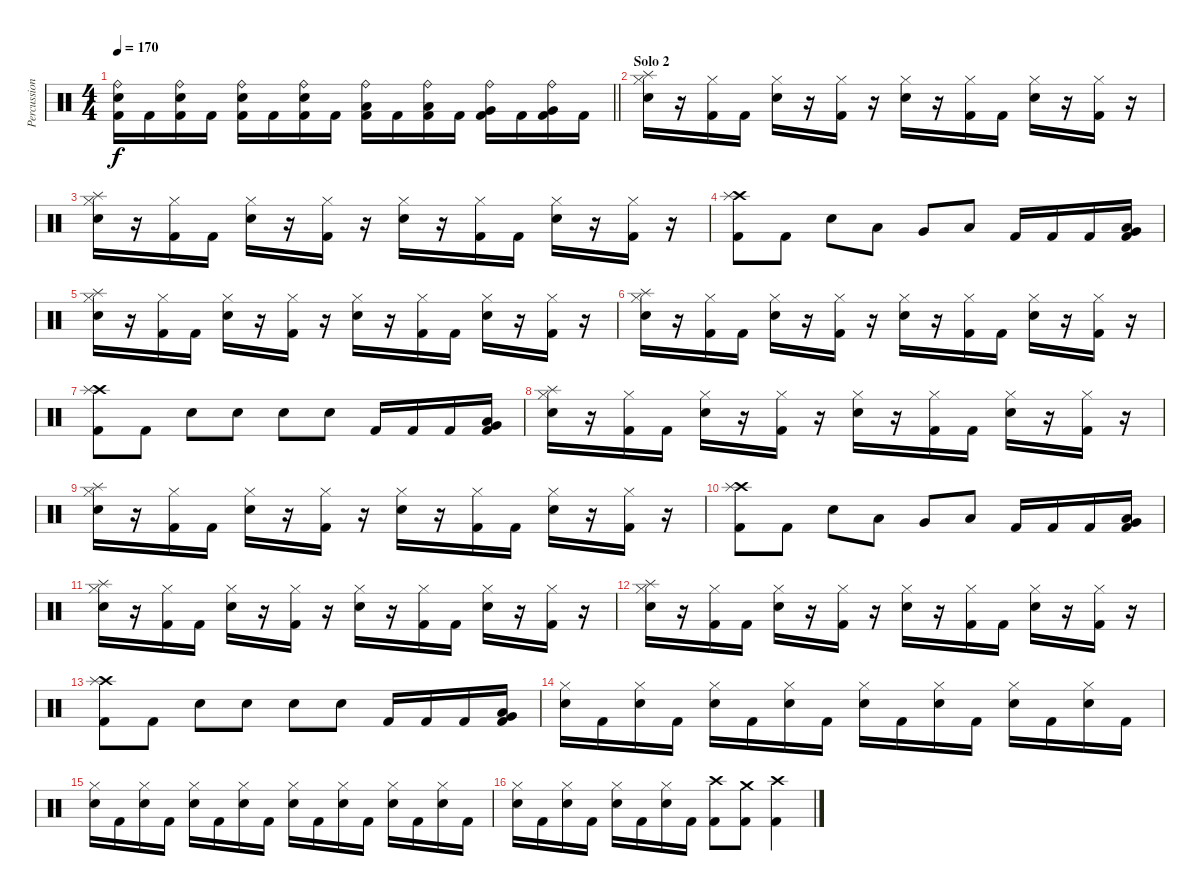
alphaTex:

\track ("Percussion" "Percussion") {instrument percussion}
\staff {score}
\articulation defaults
\ts (4 4)
\tempo 170
\clef neutral
\barLineRight lightlight
\ks c
("Ride (bell)" "Snare (hit) 2" "Kick (hit) 2").16{dy f} "Kick (hit) 2".16 ("Ride (bell)" "Snare (hit) 2" "Kick (hit) 2").16 "Kick (hit) 2".16 ("Ride (bell)" "Snare (hit) 2" "Kick (hit) 2").16 "Kick (hit) 2".16 ("Ride (bell)" "Snare (hit) 2" "Kick (hit) 2").16 "Kick (hit) 2".16 ("Ride (bell)" "Low Tom (hit)" "Kick (hit) 2").16 "Kick (hit) 2".16 ("Ride (bell)" "Low Tom (hit)" "Kick (hit) 2").16 "Kick (hit) 2".16 ("Ride (bell)" "Very Low Tom (hit)" "Kick (hit) 2").16 "Kick (hit) 2".16 ("Ride (bell)" "Very Low Tom (hit)" "Kick (hit) 2").16 "Kick (hit) 2".16 |
\section ("" "Solo 2")
("Splash (hit)" "Hi-Hat (closed)" "Snare (hit) 2").16 r.16 ("Hi-Hat (closed)" "Kick (hit) 2").16 "Kick (hit) 2".16 ("Hi-Hat (closed)" "Snare (hit) 2").16 r.16 ("Hi-Hat (closed)" "Kick (hit) 2").16 r.16 ("Hi-Hat (closed)" "Snare (hit) 2").16 r.16 ("Hi-Hat (closed)" "Kick (hit) 2").16 "Kick (hit) 2".16 ("Hi-Hat (closed)" "Snare (hit) 2").16 r.16 ("Hi-Hat (closed)" "Kick (hit) 2").16 r.16 |
("Splash (hit)" "Hi-Hat (closed)" "Snare (hit) 2").16 r.16 ("Hi-Hat (closed)" "Kick (hit) 2").16 "Kick (hit) 2".16 ("Hi-Hat (closed)" "Snare (hit) 2").16 r.16 ("Hi-Hat (closed)" "Kick (hit) 2").16 r.16 ("Hi-Hat (closed)" "Snare (hit) 2").16 r.16 ("Hi-Hat (closed)" "Kick (hit) 2").16 "Kick (hit) 2".16 ("Hi-Hat (closed)" "Snare (hit) 2").16 r.16 ("Hi-Hat (closed)" "Kick (hit) 2").16 r.16 |
("Crash high (hit)" "Splash (hit)" "Kick (hit) 2").8 "Kick (hit) 2".8 "Snare (hit) 2".8 "Low Tom (hit)".8 "Very Low Tom (hit)".8 "Low Floor Tom (hit)".8 "Kick (hit) 2".16 "Kick (hit) 2".16 "Kick (hit) 2".16 ("Low Floor Tom (hit)" "Very Low Tom (hit)" "Kick (hit) 2").16 |
("Splash (hit)" "Hi-Hat (closed)" "Snare (hit) 2").16 r.16 ("Hi-Hat (closed)" "Kick (hit) 2").16 "Kick (hit) 2".16 ("Hi-Hat (closed)" "Snare (hit) 2").16 r.16 ("Hi-Hat (closed)" "Kick (hit) 2").16 r.16 ("Hi-Hat (closed)" "Snare (hit) 2").16 r.16 ("Hi-Hat (closed)" "Kick (hit) 2").16 "Kick (hit) 2".16 ("Hi-Hat (closed)" "Snare (hit) 2").16 r.16 ("Hi-Hat (closed)" "Kick (hit) 2").16 r.16 |
("Splash (hit)" "Hi-Hat (closed)" "Snare (hit) 2").16 r.16 ("Hi-Hat (closed)" "Kick (hit) 2").16 "Kick (hit) 2".16 ("Hi-Hat (closed)" "Snare (hit) 2").16 r.16 ("Hi-Hat (closed)" "Kick (hit) 2").16 r.16 ("Hi-Hat (closed)" "Snare (hit) 2").16 r.16 ("Hi-Hat (closed)" "Kick (hit) 2").16 "Kick (hit) 2".16 ("Hi-Hat (closed)" "Snare (hit) 2").16 r.16 ("Hi-Hat (closed)" "Kick (hit) 2").16 r.16 |
("Crash high (hit)" "Splash (hit)" "Kick (hit) 2").8 "Kick (hit) 2".8 "Snare (hit) 2".8 "Snare (hit) 2".8 "Snare (hit) 2".8 "Snare (hit) 2".8 "Kick (hit) 2".16 "Kick (hit) 2".16 "Kick (hit) 2".16 ("Low Floor Tom (hit)" "Very Low Tom (hit)" "Kick (hit) 2").16 |
("Splash (hit)" "Hi-Hat (closed)" "Snare (hit) 2").16 r.16 ("Hi-Hat (closed)" "Kick (hit) 2").16 "Kick (hit) 2".16 ("Hi-Hat (closed)" "Snare (hit) 2").16 r.16 ("Hi-Hat (closed)" "Kick (hit) 2").16 r.16 ("Hi-Hat (closed)" "Snare (hit) 2").16 r.16 ("Hi-Hat (closed)" "Kick (hit) 2").16 "Kick (hit) 2".16 ("Hi-Hat (closed)" "Snare (hit) 2").16 r.16 ("Hi-Hat (closed)" "Kick (hit) 2").16 r.16 |
("Splash (hit)" "Hi-Hat (closed)" "Snare (hit) 2").16 r.16 ("Hi-Hat (closed)" "Kick (hit) 2").16 "Kick (hit) 2".16 ("Hi-Hat (closed)" "Snare (hit) 2").16 r.16 ("Hi-Hat (closed)" "Kick (hit) 2").16 r.16 ("Hi-Hat (closed)" "Snare (hit) 2").16 r.16 ("Hi-Hat (closed)" "Kick (hit) 2").16 "Kick (hit) 2".16 ("Hi-Hat (closed)" "Snare (hit) 2").16 r.16 ("Hi-Hat (closed)" "Kick (hit) 2").16 r.16 |
("Crash high (hit)" "Splash (hit)" "Kick (hit) 2").8 "Kick (hit) 2".8 "Snare (hit) 2".8 "Low Tom (hit)".8 "Very Low Tom (hit)".8 "Low Floor Tom (hit)".8 "Kick (hit) 2".16 "Kick (hit) 2".16 "Kick (hit) 2".16 ("Low Floor Tom (hit)" "Very Low Tom (hit)" "Kick (hit) 2").16 |
("Splash (hit)" "Hi-Hat (closed)" "Snare (hit) 2").16 r.16 ("Hi-Hat (closed)" "Kick (hit) 2").16 "Kick (hit) 2".16 ("Hi-Hat (closed)" "Snare (hit) 2").16 r.16 ("Hi-Hat (closed)" "Kick (hit) 2").16 r.16 ("Hi-Hat (closed)" "Snare (hit) 2").16 r.16 ("Hi-Hat (closed)" "Kick (hit) 2").16 "Kick (hit) 2".16 ("Hi-Hat (closed)" "Snare (hit) 2").16 r.16 ("Hi-Hat (closed)" "Kick (hit) 2").16 r.16 |
("Splash (hit)" "Hi-Hat (closed)" "Snare (hit) 2").16 r.16 ("Hi-Hat (closed)" "Kick (hit) 2").16 "Kick (hit) 2".16 ("Hi-Hat (closed)" "Snare (hit) 2").16 r.16 ("Hi-Hat (closed)" "Kick (hit) 2").16 r.16 ("Hi-Hat (closed)" "Snare (hit) 2").16 r.16 ("Hi-Hat (closed)" "Kick (hit) 2").16 "Kick (hit) 2".16 ("Hi-Hat (closed)" "Snare (hit) 2").16 r.16 ("Hi-Hat (closed)" "Kick (hit) 2").16 r.16 |
("Crash high (hit)" "Splash (hit)" "Kick (hit) 2").8 "Kick (hit) 2".8 "Snare (hit) 2".8 "Snare (hit) 2".8 "Snare (hit) 2".8 "Snare (hit) 2".8 "Kick (hit) 2".16 "Kick (hit) 2".16 "Kick (hit) 2".16 ("Low Floor Tom (hit)" "Very Low Tom (hit)" "Kick (hit) 2").16 |
("Hi-Hat (closed)" "Snare (hit) 2").16 "Kick (hit) 2".16 ("Hi-Hat (closed)" "Snare (hit) 2").16 "Kick (hit) 2".16 ("Hi-Hat (closed)" "Snare (hit) 2").16 "Kick (hit) 2".16 ("Hi-Hat (closed)" "Snare (hit) 2").16 "Kick (hit) 2".16 ("Hi-Hat (closed)" "Snare (hit) 2").16 "Kick (hit) 2".16 ("Hi-Hat (closed)" "Snare (hit) 2").16 "Kick (hit) 2".16 ("Hi-Hat (closed)" "Snare (hit) 2").16 "Kick (hit) 2".16 ("Hi-Hat (closed)" "Snare (hit) 2").16 "Kick (hit) 2".16 |
("Hi-Hat (closed)" "Snare (hit) 2").16 "Kick (hit) 2".16 ("Hi-Hat (closed)" "Snare (hit) 2").16 "Kick (hit) 2".16 ("Hi-Hat (closed)" "Snare (hit) 2").16 "Kick (hit) 2".16 ("Hi-Hat (closed)" "Snare (hit) 2").16 "Kick (hit) 2".16 ("Hi-Hat (closed)" "Snare (hit) 2").16 "Kick (hit) 2".16 ("Hi-Hat (closed)" "Snare (hit) 2").16 "Kick (hit) 2".16 ("Hi-Hat (closed)" "Snare (hit) 2").16 "Kick (hit) 2".16 ("Hi-Hat (closed)" "Snare (hit) 2").16 "Kick (hit) 2".16 |
("Hi-Hat (closed)" "Snare (hit) 2").16 "Kick (hit) 2".16 ("Hi-Hat (closed)" "Snare (hit) 2").16 "Kick (hit) 2".16 ("Hi-Hat (closed)" "Snare (hit) 2").16 "Kick (hit) 2".16 ("Hi-Hat (closed)" "Snare (hit) 2").16 "Kick (hit) 2".16 ("Kick (hit) 2" "Crash high (hit)").8 ("Kick (hit) 2" "Crash medium (hit)").8 ("Kick (hit) 2" "Crash high (hit)").4
